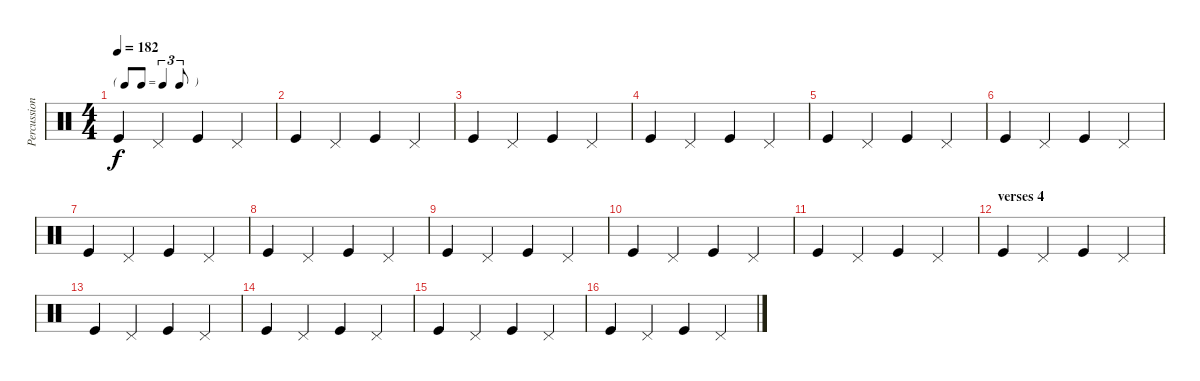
\track ("Percussions" "Percussion") {instrument percussion}
\staff {score}
\articulation defaults
\ts (4 4)
\tf triplet8th
\tempo 182
\clef neutral
\ks c "Kick (hit)".4{dy f} "Pedal Hi-Hat (hit)".4 "Kick (hit)".4 "Pedal Hi-Hat (hit)".4
|
"Kick (hit)".4 "Pedal Hi-Hat (hit)".4 "Kick (hit)".4 "Pedal Hi-Hat (hit)".4 |
"Kick (hit)".4 "Pedal Hi-Hat (hit)".4 "Kick (hit)".4 "Pedal Hi-Hat (hit)".4 |
"Kick (hit)".4 "Pedal Hi-Hat (hit)".4 "Kick (hit)".4 "Pedal Hi-Hat (hit)".4 |
"Kick (hit)".4 "Pedal Hi-Hat (hit)".4 "Kick (hit)".4 "Pedal Hi-Hat (hit)".4 |
"Kick (hit)".4 "Pedal Hi-Hat (hit)".4 "Kick (hit)".4 "Pedal Hi-Hat (hit)".4 |
"Kick (hit)".4 "Pedal Hi-Hat (hit)".4 "Kick (hit)".4 "Pedal Hi-Hat (hit)".4 |
"Kick (hit)".4 "Pedal Hi-Hat (hit)".4 "Kick (hit)".4 "Pedal Hi-Hat (hit)".4 |
"Kick (hit)".4 "Pedal Hi-Hat (hit)".4 "Kick (hit)".4 "Pedal Hi-Hat (hit)".4 |
"Kick (hit)".4 "Pedal Hi-Hat (hit)".4 "Kick (hit)".4 "Pedal Hi-Hat (hit)".4 |
"Kick (hit)".4 "Pedal Hi-Hat (hit)".4 "Kick (hit)".4 "Pedal Hi-Hat (hit)".4 |
\section ("" "verses 4")
"Kick (hit)".4 "Pedal Hi-Hat (hit)".4 "Kick (hit)".4 "Pedal Hi-Hat (hit)".4 |
"Kick (hit)".4 "Pedal Hi-Hat (hit)".4 "Kick (hit)".4 "Pedal Hi-Hat (hit)".4 |
"Kick (hit)".4 "Pedal Hi-Hat (hit)".4 "Kick (hit)".4 "Pedal Hi-Hat (hit)".4 |
"Kick (hit)".4 "Pedal Hi-Hat (hit)".4 "Kick (hit)".4 "Pedal Hi-Hat (hit)".4 |
"Kick (hit)".4 "Pedal Hi-Hat (hit)".4 "Kick (hit)".4 "Pedal Hi-Hat (hit)".4
